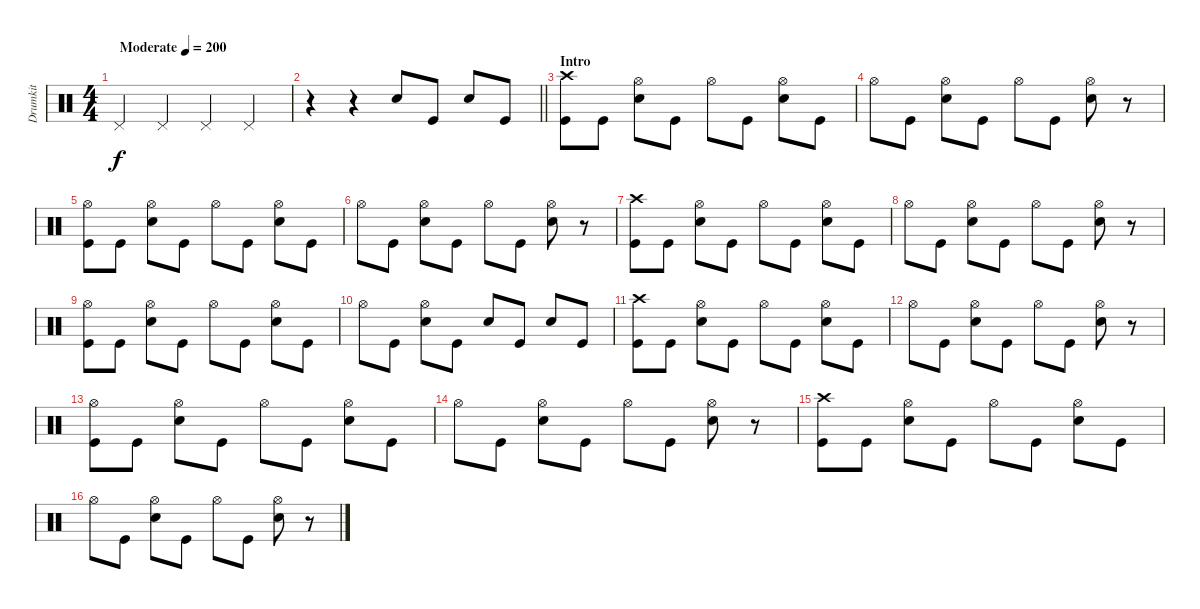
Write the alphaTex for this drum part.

\track ("Drumkit" "Drumkit") {instrument percussion}
\staff {score}
\articulation defaults
\ts (4 4)
\tempo (200 "Moderate")
\clef neutral
\ks c "Pedal Hi-Hat (hit)".4{dy f} "Pedal Hi-Hat (hit)".4 "Pedal Hi-Hat (hit)".4 "Pedal Hi-Hat (hit)".4
|
\barLineRight lightlight
r.4 r.4 "Snare (hit) 2".8 "Kick (hit)".8 "Snare (hit) 2".8 "Kick (hit)".8 |
\section ("" "Intro")
("Crash high (hit)" "Kick (hit)").8 "Kick (hit)".8 ("Hi-Hat (open)" "Snare (hit) 2").8 "Kick (hit)".8 "Hi-Hat (open)".8 "Kick (hit)".8 ("Snare (hit) 2" "Hi-Hat (open)").8 "Kick (hit)".8 |
"Hi-Hat (open)".8 "Kick (hit)".8 ("Hi-Hat (open)" "Snare (hit) 2").8 "Kick (hit)".8 "Hi-Hat (open)".8 "Kick (hit)".8 ("Snare (hit) 2" "Hi-Hat (open)").8 r.8 |
("Hi-Hat (open)" "Kick (hit)").8 "Kick (hit)".8 ("Hi-Hat (open)" "Snare (hit) 2").8 "Kick (hit)".8 "Hi-Hat (open)".8 "Kick (hit)".8 ("Snare (hit) 2" "Hi-Hat (open)").8 "Kick (hit)".8 |
"Hi-Hat (open)".8 "Kick (hit)".8 ("Hi-Hat (open)" "Snare (hit) 2").8 "Kick (hit)".8 "Hi-Hat (open)".8 "Kick (hit)".8 ("Snare (hit) 2" "Hi-Hat (open)").8 r.8 |
("Crash high (hit)" "Kick (hit)").8 "Kick (hit)".8 ("Hi-Hat (open)" "Snare (hit) 2").8 "Kick (hit)".8 "Hi-Hat (open)".8 "Kick (hit)".8 ("Snare (hit) 2" "Hi-Hat (open)").8 "Kick (hit)".8 |
"Hi-Hat (open)".8 "Kick (hit)".8 ("Hi-Hat (open)" "Snare (hit) 2").8 "Kick (hit)".8 "Hi-Hat (open)".8 "Kick (hit)".8 ("Snare (hit) 2" "Hi-Hat (open)").8 r.8 |
("Hi-Hat (open)" "Kick (hit)").8 "Kick (hit)".8 ("Hi-Hat (open)" "Snare (hit) 2").8 "Kick (hit)".8 "Hi-Hat (open)".8 "Kick (hit)".8 ("Snare (hit) 2" "Hi-Hat (open)").8 "Kick (hit)".8 |
"Hi-Hat (open)".8 "Kick (hit)".8 ("Hi-Hat (open)" "Snare (hit) 2").8 "Kick (hit)".8 "Snare (hit) 2".8 "Kick (hit)".8 "Snare (hit) 2".8 "Kick (hit)".8 |
("Crash high (hit)" "Kick (hit)").8 "Kick (hit)".8 ("Hi-Hat (open)" "Snare (hit) 2").8 "Kick (hit)".8 "Hi-Hat (open)".8 "Kick (hit)".8 ("Snare (hit) 2" "Hi-Hat (open)").8 "Kick (hit)".8 |
"Hi-Hat (open)".8 "Kick (hit)".8 ("Hi-Hat (open)" "Snare (hit) 2").8 "Kick (hit)".8 "Hi-Hat (open)".8 "Kick (hit)".8 ("Snare (hit) 2" "Hi-Hat (open)").8 r.8 |
("Hi-Hat (open)" "Kick (hit)").8 "Kick (hit)".8 ("Hi-Hat (open)" "Snare (hit) 2").8 "Kick (hit)".8 "Hi-Hat (open)".8 "Kick (hit)".8 ("Snare (hit) 2" "Hi-Hat (open)").8 "Kick (hit)".8 |
"Hi-Hat (open)".8 "Kick (hit)".8 ("Hi-Hat (open)" "Snare (hit) 2").8 "Kick (hit)".8 "Hi-Hat (open)".8 "Kick (hit)".8 ("Snare (hit) 2" "Hi-Hat (open)").8 r.8 |
("Crash high (hit)" "Kick (hit)").8 "Kick (hit)".8 ("Hi-Hat (open)" "Snare (hit) 2").8 "Kick (hit)".8 "Hi-Hat (open)".8 "Kick (hit)".8 ("Snare (hit) 2" "Hi-Hat (open)").8 "Kick (hit)".8 |
"Hi-Hat (open)".8 "Kick (hit)".8 ("Hi-Hat (open)" "Snare (hit) 2").8 "Kick (hit)".8 "Hi-Hat (open)".8 "Kick (hit)".8 ("Snare (hit) 2" "Hi-Hat (open)").8 r.8
